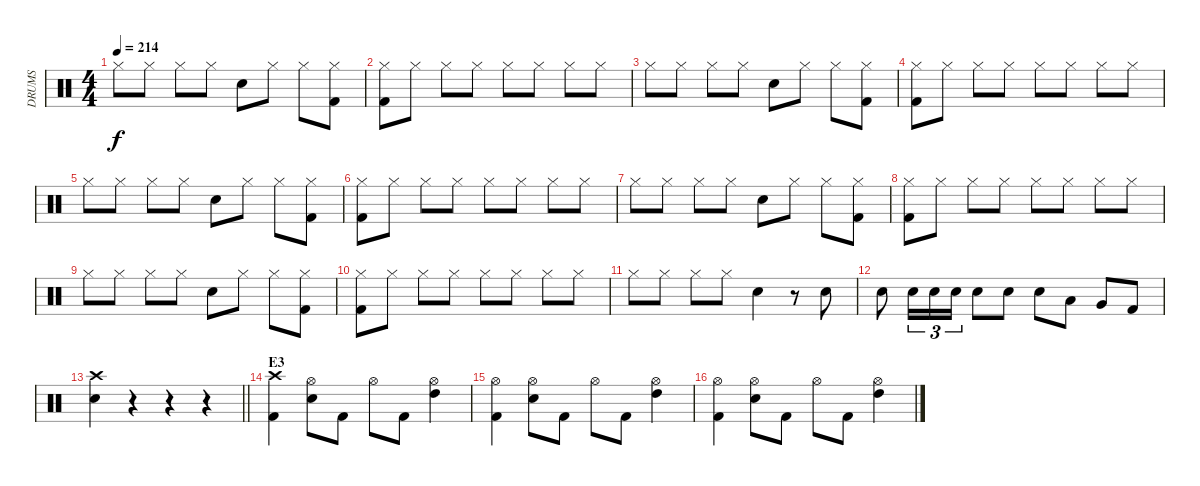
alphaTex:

\track ("DRUMS" "DRUMS") {instrument percussion}
\staff {score}
\articulation defaults
\ts (4 4)
\tempo 214
\clef neutral
\ks c "Hi-Hat (closed)".8{dy f} "Hi-Hat (closed)".8 "Hi-Hat (closed)".8 "Hi-Hat (closed)".8 "Snare (hit) 2".8 "Hi-Hat (closed)".8 "Hi-Hat (closed)".8
("Hi-Hat (closed)" "Kick (hit) 2").8 |
("Hi-Hat (closed)" "Kick (hit) 2").8 "Hi-Hat (closed)".8 "Hi-Hat (closed)".8 "Hi-Hat (closed)".8 "Hi-Hat (closed)".8 "Hi-Hat (closed)".8 "Hi-Hat (closed)".8 "Hi-Hat (closed)".8 |
"Hi-Hat (closed)".8 "Hi-Hat (closed)".8 "Hi-Hat (closed)".8 "Hi-Hat (closed)".8 "Snare (hit) 2".8 "Hi-Hat (closed)".8 "Hi-Hat (closed)".8 ("Hi-Hat (closed)" "Kick (hit) 2").8 |
("Hi-Hat (closed)" "Kick (hit) 2").8 "Hi-Hat (closed)".8 "Hi-Hat (closed)".8 "Hi-Hat (closed)".8 "Hi-Hat (closed)".8 "Hi-Hat (closed)".8 "Hi-Hat (closed)".8 "Hi-Hat (closed)".8 |
"Hi-Hat (closed)".8 "Hi-Hat (closed)".8 "Hi-Hat (closed)".8 "Hi-Hat (closed)".8 "Snare (hit) 2".8 "Hi-Hat (closed)".8 "Hi-Hat (closed)".8 ("Hi-Hat (closed)" "Kick (hit) 2").8 |
("Hi-Hat (closed)" "Kick (hit) 2").8 "Hi-Hat (closed)".8 "Hi-Hat (closed)".8 "Hi-Hat (closed)".8 "Hi-Hat (closed)".8 "Hi-Hat (closed)".8 "Hi-Hat (closed)".8 "Hi-Hat (closed)".8 |
"Hi-Hat (closed)".8 "Hi-Hat (closed)".8 "Hi-Hat (closed)".8 "Hi-Hat (closed)".8 "Snare (hit) 2".8 "Hi-Hat (closed)".8 "Hi-Hat (closed)".8 ("Hi-Hat (closed)" "Kick (hit) 2").8 |
("Hi-Hat (closed)" "Kick (hit) 2").8 "Hi-Hat (closed)".8 "Hi-Hat (closed)".8 "Hi-Hat (closed)".8 "Hi-Hat (closed)".8 "Hi-Hat (closed)".8 "Hi-Hat (closed)".8 "Hi-Hat (closed)".8 |
"Hi-Hat (closed)".8 "Hi-Hat (closed)".8 "Hi-Hat (closed)".8 "Hi-Hat (closed)".8 "Snare (hit) 2".8 "Hi-Hat (closed)".8 "Hi-Hat (closed)".8 ("Hi-Hat (closed)" "Kick (hit) 2").8 |
("Hi-Hat (closed)" "Kick (hit) 2").8 "Hi-Hat (closed)".8 "Hi-Hat (closed)".8 "Hi-Hat (closed)".8 "Hi-Hat (closed)".8 "Hi-Hat (closed)".8 "Hi-Hat (closed)".8 "Hi-Hat (closed)".8 |
"Hi-Hat (closed)".8 "Hi-Hat (closed)".8 "Hi-Hat (closed)".8 "Hi-Hat (closed)".8 "Snare (hit) 2".4 r.8 "Snare (hit) 2".8 |
"Snare (hit) 2".8 "Snare (hit) 2".16{tu (3 2)} "Snare (hit) 2".16{tu (3 2)} "Snare (hit) 2".16{tu (3 2)} "Snare (hit) 2".8 "Snare (hit) 2".8 "Snare (hit) 2".8 "Low Tom (hit)".8 "Very Low Tom (hit)".8 "Kick (hit) 2".8 |
\barLineRight lightlight
("Crash high (hit)" "Snare (hit) 2").4 r.4 r.4 r.4 |
\section ("" "E3")
("Crash high (hit)" "Kick (hit) 2").4 ("Hi-Hat (open)" "Snare (hit) 2").8 "Kick (hit) 2".8 "Hi-Hat (open)".8 "Kick (hit) 2".8 ("Hi-Hat (open)" "High Tom (hit)").4 |
("Hi-Hat (open)" "Kick (hit) 2").4 ("Hi-Hat (open)" "Snare (hit) 2").8 "Kick (hit) 2".8 "Hi-Hat (open)".8 "Kick (hit) 2".8 ("Hi-Hat (open)" "High Tom (hit)").4 |
("Hi-Hat (open)" "Kick (hit) 2").4 ("Hi-Hat (open)" "Snare (hit) 2").8 "Kick (hit) 2".8 "Hi-Hat (open)".8 "Kick (hit) 2".8 ("Hi-Hat (open)" "High Tom (hit)").4
